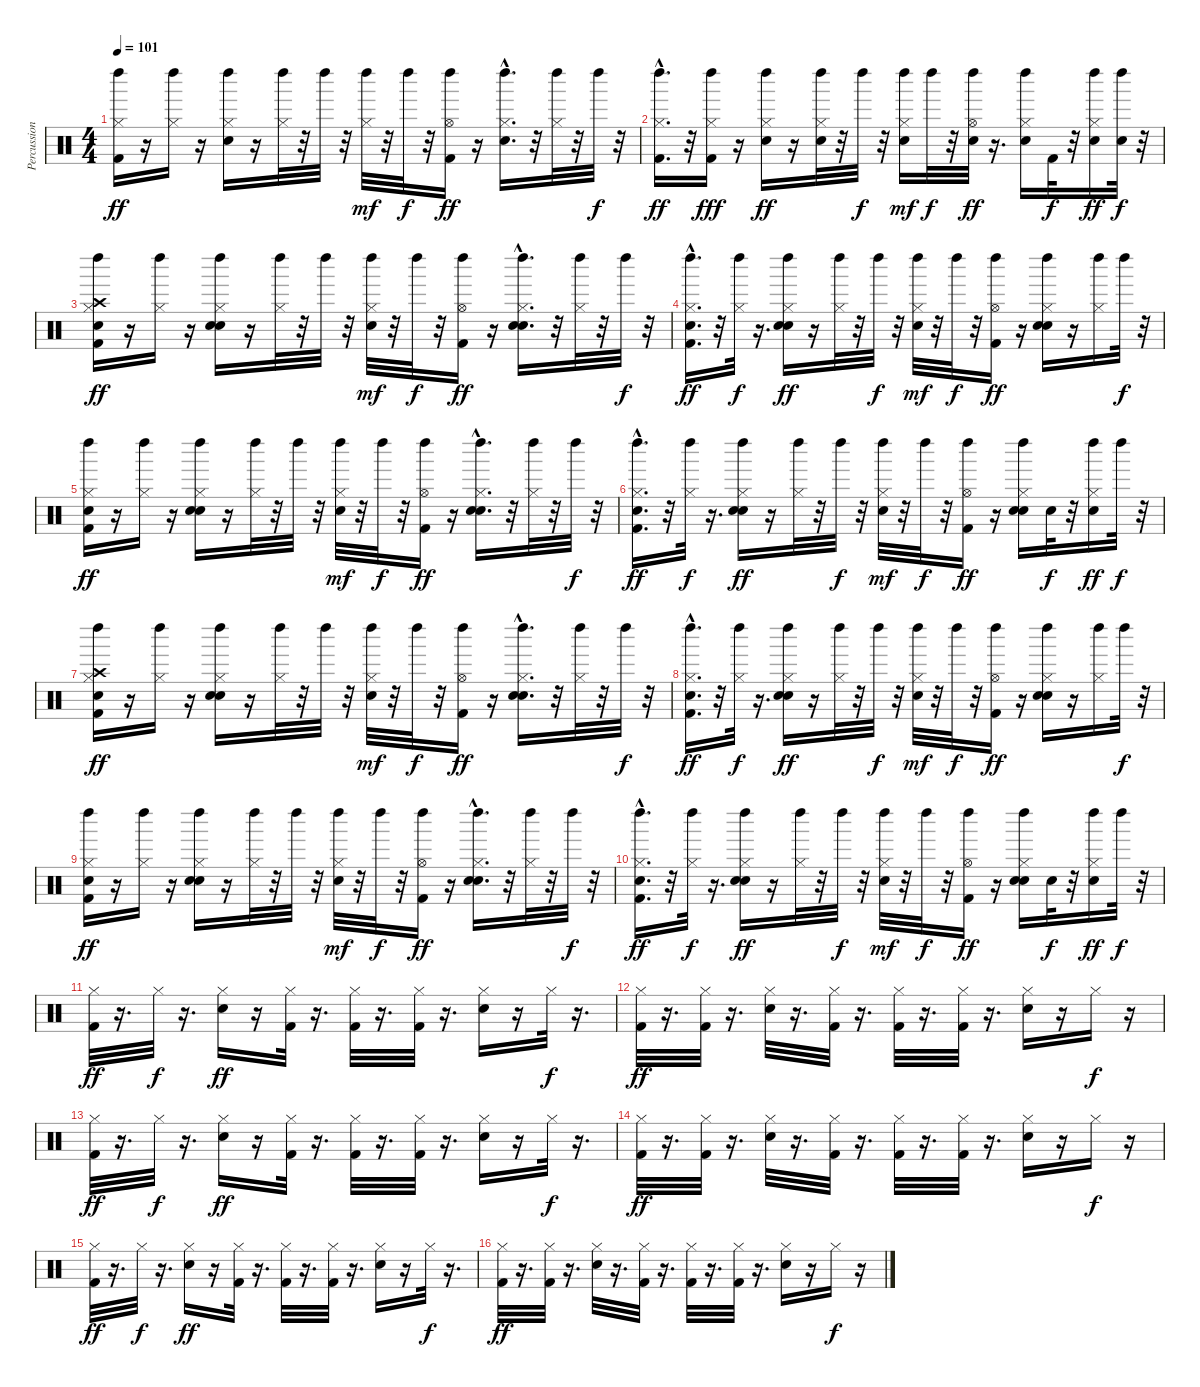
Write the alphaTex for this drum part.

\track ("Percussion" "Percussion") {instrument percussion}
\staff {score}
\articulation defaults
\ts (4 4)
\tempo 101
\clef neutral
\ks c
("Kick (hit) 2" "Hi-Hat (closed)" "Left Maraca (hit)").16{dy ff} r.16 ("Hi-Hat (closed)" "Left Maraca (hit)").16 r.16 ("Snare (hit) 2" "Hi-Hat (closed)" "Left Maraca (hit)").16 r.16 ("Hi-Hat (closed)" "Left Maraca (hit)").32 r.32 "Left Maraca (hit)".32 r.32 ("Hi-Hat (closed)" "Left Maraca (hit)").32{dy mf} r.32 "Left Maraca (hit)".32{dy f} r.32 ("Kick (hit) 2" "Hi-Hat (open)" "Left Maraca (hit)").16{dy ff} r.16 ("Snare (hit) 2"{hac} "Hi-Hat (closed)" "Left Maraca (hit)").16{d} r.32 ("Hi-Hat (closed)" "Left Maraca (hit)").32 r.32 "Left Maraca (hit)".32{dy f} r.32 |
("Kick (hit) 2"{hac} "Hi-Hat (closed)" "Left Maraca (hit)").16{d dy ff} r.32 ("Kick (hit) 2" "Hi-Hat (closed)" "Left Maraca (hit)").16{dy fff} r.16 ("Snare (hit) 2" "Hi-Hat (closed)" "Left Maraca (hit)").16{dy ff} r.16 ("Snare (hit) 2" "Hi-Hat (closed)" "Left Maraca (hit)").32 r.32 "Left Maraca (hit)".32{dy f} r.32 ("Snare (hit) 2" "Hi-Hat (closed)" "Left Maraca (hit)").16{dy mf} "Left Maraca (hit)".32{dy f} r.32 ("Snare (hit) 2" "Hi-Hat (open)" "Left Maraca (hit)").32{dy ff} r.16{d} ("Snare (hit) 2" "Hi-Hat (closed)" "Left Maraca (hit)").16 "Kick (hit) 2".32{dy f} r.32 ("Snare (hit) 2" "Hi-Hat (closed)" "Left Maraca (hit)").16{dy ff} ("Snare (hit) 2" "Left Maraca (hit)").32{dy f} r.32 |
("Kick (hit) 2" "Hand Clap (hit)" "Hi-Hat (closed)" "Crash high (hit)" "Left Maraca (hit)").16{dy ff} r.16 ("Hi-Hat (closed)" "Left Maraca (hit)").16 r.16 ("Snare (hit) 2" "Hand Clap (hit)" "Hi-Hat (closed)" "Left Maraca (hit)").16 r.16 ("Hi-Hat (closed)" "Left Maraca (hit)").32 r.32 "Left Maraca (hit)".32 r.32 ("Hand Clap (hit)" "Hi-Hat (closed)" "Left Maraca (hit)").32{dy mf} r.32 "Left Maraca (hit)".32{dy f} r.32 ("Kick (hit) 2" "Hi-Hat (open)" "Left Maraca (hit)").16{dy ff} r.16 ("Snare (hit) 2"{hac} "Hand Clap (hit)" "Hi-Hat (closed)" "Left Maraca (hit)").16{d} r.32 ("Hi-Hat (closed)" "Left Maraca (hit)").32 r.32 "Left Maraca (hit)".32{dy f} r.32 |
("Kick (hit) 2"{hac} "Hand Clap (hit)" "Hi-Hat (closed)" "Left Maraca (hit)").16{d dy ff} r.32 ("Hi-Hat (closed)" "Left Maraca (hit)").32{dy f} r.16{d} ("Snare (hit) 2" "Hand Clap (hit)" "Hi-Hat (closed)" "Left Maraca (hit)").16{dy ff} r.16 ("Hi-Hat (closed)" "Left Maraca (hit)").32 r.32 "Left Maraca (hit)".32{dy f} r.32 ("Hand Clap (hit)" "Hi-Hat (closed)" "Left Maraca (hit)").32{dy mf} r.32 "Left Maraca (hit)".32{dy f} r.32 ("Kick (hit) 2" "Hi-Hat (open)" "Left Maraca (hit)").16{dy ff} r.16 ("Snare (hit) 2" "Hand Clap (hit)" "Hi-Hat (closed)" "Left Maraca (hit)").16 r.16 ("Hi-Hat (closed)" "Left Maraca (hit)").16 "Left Maraca (hit)".32{dy f} r.32 |
("Kick (hit) 2" "Hand Clap (hit)" "Hi-Hat (closed)" "Left Maraca (hit)").16{dy ff} r.16 ("Hi-Hat (closed)" "Left Maraca (hit)").16 r.16 ("Snare (hit) 2" "Hand Clap (hit)" "Hi-Hat (closed)" "Left Maraca (hit)").16 r.16 ("Hi-Hat (closed)" "Left Maraca (hit)").32 r.32 "Left Maraca (hit)".32 r.32 ("Hand Clap (hit)" "Hi-Hat (closed)" "Left Maraca (hit)").32{dy mf} r.32 "Left Maraca (hit)".32{dy f} r.32 ("Kick (hit) 2" "Hi-Hat (open)" "Left Maraca (hit)").16{dy ff} r.16 ("Snare (hit) 2"{hac} "Hand Clap (hit)" "Hi-Hat (closed)" "Left Maraca (hit)").16{d} r.32 ("Hi-Hat (closed)" "Left Maraca (hit)").32 r.32 "Left Maraca (hit)".32{dy f} r.32 |
("Kick (hit) 2"{hac} "Hand Clap (hit)" "Hi-Hat (closed)" "Left Maraca (hit)").16{d dy ff} r.32 ("Hi-Hat (closed)" "Left Maraca (hit)").32{dy f} r.16{d} ("Snare (hit) 2" "Hand Clap (hit)" "Hi-Hat (closed)" "Left Maraca (hit)").16{dy ff} r.16 ("Hi-Hat (closed)" "Left Maraca (hit)").32 r.32 "Left Maraca (hit)".32{dy f} r.32 ("Hand Clap (hit)" "Hi-Hat (closed)" "Left Maraca (hit)").32{dy mf} r.32 "Left Maraca (hit)".32{dy f} r.32 ("Kick (hit) 2" "Hi-Hat (open)" "Left Maraca (hit)").16{dy ff} r.16 ("Snare (hit) 2" "Hand Clap (hit)" "Hi-Hat (closed)" "Left Maraca (hit)").16 "Snare (hit) 2".32{dy f} r.32 ("Snare (hit) 2" "Hi-Hat (closed)" "Left Maraca (hit)").16{dy ff} "Left Maraca (hit)".32{dy f} r.32 |
("Kick (hit) 2" "Hand Clap (hit)" "Hi-Hat (closed)" "Crash high (hit)" "Left Maraca (hit)").16{dy ff} r.16 ("Hi-Hat (closed)" "Left Maraca (hit)").16 r.16 ("Snare (hit) 2" "Hand Clap (hit)" "Hi-Hat (closed)" "Left Maraca (hit)").16 r.16 ("Hi-Hat (closed)" "Left Maraca (hit)").32 r.32 "Left Maraca (hit)".32 r.32 ("Hand Clap (hit)" "Hi-Hat (closed)" "Left Maraca (hit)").32{dy mf} r.32 "Left Maraca (hit)".32{dy f} r.32 ("Kick (hit) 2" "Hi-Hat (open)" "Left Maraca (hit)").16{dy ff} r.16 ("Snare (hit) 2"{hac} "Hand Clap (hit)" "Hi-Hat (closed)" "Left Maraca (hit)").16{d} r.32 ("Hi-Hat (closed)" "Left Maraca (hit)").32 r.32 "Left Maraca (hit)".32{dy f} r.32 |
("Kick (hit) 2"{hac} "Hand Clap (hit)" "Hi-Hat (closed)" "Left Maraca (hit)").16{d dy ff} r.32 ("Hi-Hat (closed)" "Left Maraca (hit)").32{dy f} r.16{d} ("Snare (hit) 2" "Hand Clap (hit)" "Hi-Hat (closed)" "Left Maraca (hit)").16{dy ff} r.16 ("Hi-Hat (closed)" "Left Maraca (hit)").32 r.32 "Left Maraca (hit)".32{dy f} r.32 ("Hand Clap (hit)" "Hi-Hat (closed)" "Left Maraca (hit)").32{dy mf} r.32 "Left Maraca (hit)".32{dy f} r.32 ("Kick (hit) 2" "Hi-Hat (open)" "Left Maraca (hit)").16{dy ff} r.16 ("Snare (hit) 2" "Hand Clap (hit)" "Hi-Hat (closed)" "Left Maraca (hit)").16 r.16 ("Hi-Hat (closed)" "Left Maraca (hit)").16 "Left Maraca (hit)".32{dy f} r.32 |
("Kick (hit) 2" "Hand Clap (hit)" "Hi-Hat (closed)" "Left Maraca (hit)").16{dy ff} r.16 ("Hi-Hat (closed)" "Left Maraca (hit)").16 r.16 ("Snare (hit) 2" "Hand Clap (hit)" "Hi-Hat (closed)" "Left Maraca (hit)").16 r.16 ("Hi-Hat (closed)" "Left Maraca (hit)").32 r.32 "Left Maraca (hit)".32 r.32 ("Hand Clap (hit)" "Hi-Hat (closed)" "Left Maraca (hit)").32{dy mf} r.32 "Left Maraca (hit)".32{dy f} r.32 ("Kick (hit) 2" "Hi-Hat (open)" "Left Maraca (hit)").16{dy ff} r.16 ("Snare (hit) 2"{hac} "Hand Clap (hit)" "Hi-Hat (closed)" "Left Maraca (hit)").16{d} r.32 ("Hi-Hat (closed)" "Left Maraca (hit)").32 r.32 "Left Maraca (hit)".32{dy f} r.32 |
("Kick (hit) 2"{hac} "Hand Clap (hit)" "Hi-Hat (closed)" "Left Maraca (hit)").16{d dy ff} r.32 ("Hi-Hat (closed)" "Left Maraca (hit)").32{dy f} r.16{d} ("Snare (hit) 2" "Hand Clap (hit)" "Hi-Hat (closed)" "Left Maraca (hit)").16{dy ff} r.16 ("Hi-Hat (closed)" "Left Maraca (hit)").32 r.32 "Left Maraca (hit)".32{dy f} r.32 ("Hand Clap (hit)" "Hi-Hat (closed)" "Left Maraca (hit)").32{dy mf} r.32 "Left Maraca (hit)".32{dy f} r.32 ("Kick (hit) 2" "Hi-Hat (open)" "Left Maraca (hit)").16{dy ff} r.16 ("Snare (hit) 2" "Hand Clap (hit)" "Hi-Hat (closed)" "Left Maraca (hit)").16 "Snare (hit) 2".32{dy f} r.32 ("Snare (hit) 2" "Hi-Hat (closed)" "Left Maraca (hit)").16{dy ff} "Left Maraca (hit)".32{dy f} r.32 |
("Kick (hit) 2" "Hi-Hat (closed)").32{dy ff} r.16{d} "Hi-Hat (closed)".32{dy f} r.16{d} ("Snare (hit) 2" "Hi-Hat (closed)").16{dy ff} r.16 ("Kick (hit) 2" "Hi-Hat (closed)").32 r.16{d} ("Kick (hit) 2" "Hi-Hat (closed)").32 r.16{d} ("Kick (hit) 2" "Hi-Hat (closed)").32 r.16{d} ("Snare (hit) 2" "Hi-Hat (closed)").16 r.16 "Hi-Hat (closed)".32{dy f} r.16{d} |
("Kick (hit) 2" "Hi-Hat (closed)").32{dy ff} r.16{d} ("Kick (hit) 2" "Hi-Hat (closed)").32 r.16{d} ("Snare (hit) 2" "Hi-Hat (closed)").32 r.16{d} ("Kick (hit) 2" "Hi-Hat (closed)").32 r.16{d} ("Kick (hit) 2" "Hi-Hat (closed)").32 r.16{d} ("Kick (hit) 2" "Hi-Hat (closed)").32 r.16{d} ("Snare (hit) 2" "Hi-Hat (closed)").16 r.16 "Hi-Hat (closed)".16{dy f} r.16 |
("Kick (hit) 2" "Hi-Hat (closed)").32{dy ff} r.16{d} "Hi-Hat (closed)".32{dy f} r.16{d} ("Snare (hit) 2" "Hi-Hat (closed)").16{dy ff} r.16 ("Kick (hit) 2" "Hi-Hat (closed)").32 r.16{d} ("Kick (hit) 2" "Hi-Hat (closed)").32 r.16{d} ("Kick (hit) 2" "Hi-Hat (closed)").32 r.16{d} ("Snare (hit) 2" "Hi-Hat (closed)").16 r.16 "Hi-Hat (closed)".32{dy f} r.16{d} |
("Kick (hit) 2" "Hi-Hat (closed)").32{dy ff} r.16{d} ("Kick (hit) 2" "Hi-Hat (closed)").32 r.16{d} ("Snare (hit) 2" "Hi-Hat (closed)").32 r.16{d} ("Kick (hit) 2" "Hi-Hat (closed)").32 r.16{d} ("Kick (hit) 2" "Hi-Hat (closed)").32 r.16{d} ("Kick (hit) 2" "Hi-Hat (closed)").32 r.16{d} ("Snare (hit) 2" "Hi-Hat (closed)").16 r.16 "Hi-Hat (closed)".16{dy f} r.16 |
("Kick (hit) 2" "Hi-Hat (closed)").32{dy ff} r.16{d} "Hi-Hat (closed)".32{dy f} r.16{d} ("Snare (hit) 2" "Hi-Hat (closed)").16{dy ff} r.16 ("Kick (hit) 2" "Hi-Hat (closed)").32 r.16{d} ("Kick (hit) 2" "Hi-Hat (closed)").32 r.16{d} ("Kick (hit) 2" "Hi-Hat (closed)").32 r.16{d} ("Snare (hit) 2" "Hi-Hat (closed)").16 r.16 "Hi-Hat (closed)".32{dy f} r.16{d} |
("Kick (hit) 2" "Hi-Hat (closed)").32{dy ff} r.16{d} ("Kick (hit) 2" "Hi-Hat (closed)").32 r.16{d} ("Snare (hit) 2" "Hi-Hat (closed)").32 r.16{d} ("Kick (hit) 2" "Hi-Hat (closed)").32 r.16{d} ("Kick (hit) 2" "Hi-Hat (closed)").32 r.16{d} ("Kick (hit) 2" "Hi-Hat (closed)").32 r.16{d} ("Snare (hit) 2" "Hi-Hat (closed)").16 r.16 "Hi-Hat (closed)".16{dy f} r.16
